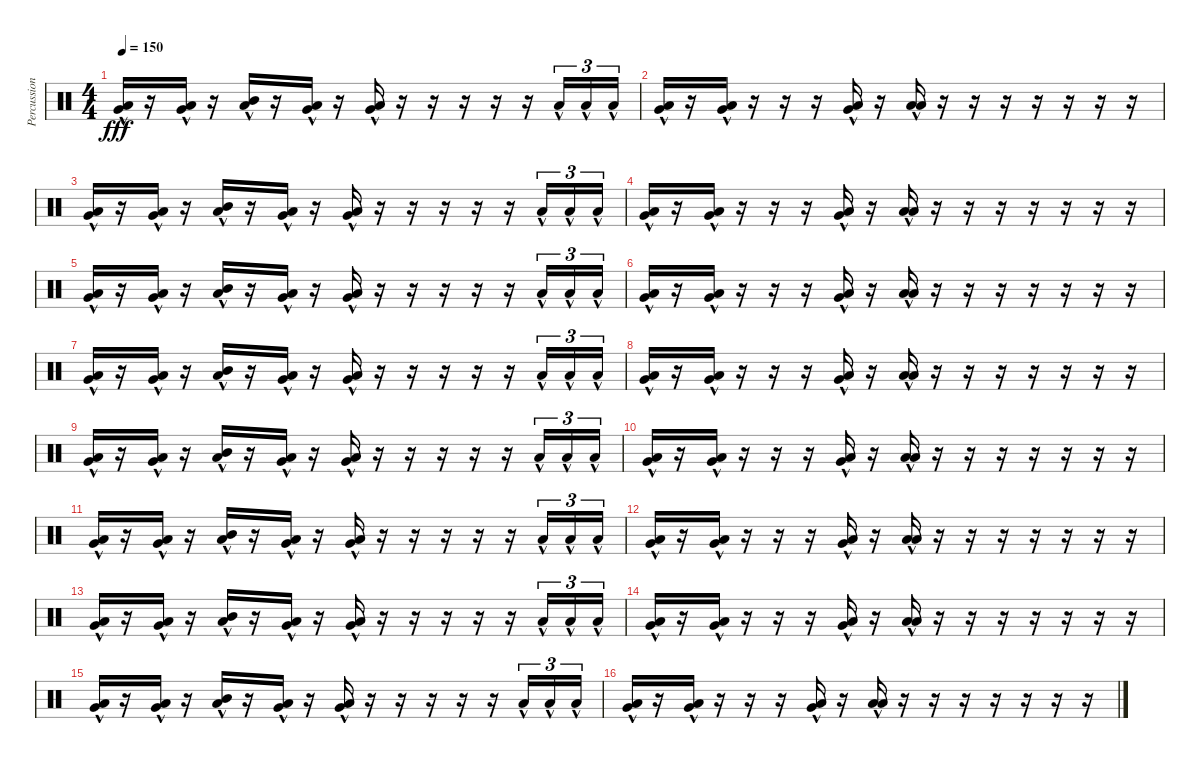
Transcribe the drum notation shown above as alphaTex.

\track ("Percussion" "Percussion") {instrument percussion}
\staff {score}
\articulation defaults
\ts (4 4)
\tempo 150
\clef neutral
\ks c
("Very Low Tom (hit)"{hac} "Low Floor Tom (hit)"{hac}).16{dy fff} r.16 ("Very Low Tom (hit)"{hac} "Low Floor Tom (hit)"{hac}).16 r.16 ("Mid Tom (hit)"{hac} "Low Floor Tom (hit)"{hac}).16 r.16 ("Very Low Tom (hit)"{hac} "Low Floor Tom (hit)"{hac}).16 r.16 ("Very Low Tom (hit)"{hac} "Low Floor Tom (hit)"{hac}).16 r.16 r.16 r.16 r.16 r.16 "Low Floor Tom (hit)"{hac}.16{tu (3 2)} "Low Floor Tom (hit)"{hac}.16{tu (3 2)} "Low Floor Tom (hit)"{hac}.16{tu (3 2)} |
("Very Low Tom (hit)"{hac} "Low Floor Tom (hit)"{hac}).16 r.16 ("Very Low Tom (hit)"{hac} "Low Floor Tom (hit)"{hac}).16 r.16 r.16 r.16 ("Very Low Tom (hit)"{hac} "Low Floor Tom (hit)"{hac}).16 r.16 ("Low Floor Tom (hit)"{hac} "Low Floor Tom (hit)"{hac}).16 r.16 r.16 r.16 r.16 r.16 r.16 r.16 |
("Very Low Tom (hit)"{hac} "Low Floor Tom (hit)"{hac}).16 r.16 ("Very Low Tom (hit)"{hac} "Low Floor Tom (hit)"{hac}).16 r.16 ("Mid Tom (hit)"{hac} "Low Floor Tom (hit)"{hac}).16 r.16 ("Very Low Tom (hit)"{hac} "Low Floor Tom (hit)"{hac}).16 r.16 ("Very Low Tom (hit)"{hac} "Low Floor Tom (hit)"{hac}).16 r.16 r.16 r.16 r.16 r.16 "Low Floor Tom (hit)"{hac}.16{tu (3 2)} "Low Floor Tom (hit)"{hac}.16{tu (3 2)} "Low Floor Tom (hit)"{hac}.16{tu (3 2)} |
("Very Low Tom (hit)"{hac} "Low Floor Tom (hit)"{hac}).16 r.16 ("Very Low Tom (hit)"{hac} "Low Floor Tom (hit)"{hac}).16 r.16 r.16 r.16 ("Very Low Tom (hit)"{hac} "Low Floor Tom (hit)"{hac}).16 r.16 ("Low Floor Tom (hit)"{hac} "Low Floor Tom (hit)"{hac}).16 r.16 r.16 r.16 r.16 r.16 r.16 r.16 |
("Very Low Tom (hit)"{hac} "Low Floor Tom (hit)"{hac}).16 r.16 ("Very Low Tom (hit)"{hac} "Low Floor Tom (hit)"{hac}).16 r.16 ("Mid Tom (hit)"{hac} "Low Floor Tom (hit)"{hac}).16 r.16 ("Very Low Tom (hit)"{hac} "Low Floor Tom (hit)"{hac}).16 r.16 ("Very Low Tom (hit)"{hac} "Low Floor Tom (hit)"{hac}).16 r.16 r.16 r.16 r.16 r.16 "Low Floor Tom (hit)"{hac}.16{tu (3 2)} "Low Floor Tom (hit)"{hac}.16{tu (3 2)} "Low Floor Tom (hit)"{hac}.16{tu (3 2)} |
("Very Low Tom (hit)"{hac} "Low Floor Tom (hit)"{hac}).16 r.16 ("Very Low Tom (hit)"{hac} "Low Floor Tom (hit)"{hac}).16 r.16 r.16 r.16 ("Very Low Tom (hit)"{hac} "Low Floor Tom (hit)"{hac}).16 r.16 ("Low Floor Tom (hit)"{hac} "Low Floor Tom (hit)"{hac}).16 r.16 r.16 r.16 r.16 r.16 r.16 r.16 |
("Very Low Tom (hit)"{hac} "Low Floor Tom (hit)"{hac}).16 r.16 ("Very Low Tom (hit)"{hac} "Low Floor Tom (hit)"{hac}).16 r.16 ("Mid Tom (hit)"{hac} "Low Floor Tom (hit)"{hac}).16 r.16 ("Very Low Tom (hit)"{hac} "Low Floor Tom (hit)"{hac}).16 r.16 ("Very Low Tom (hit)"{hac} "Low Floor Tom (hit)"{hac}).16 r.16 r.16 r.16 r.16 r.16 "Low Floor Tom (hit)"{hac}.16{tu (3 2)} "Low Floor Tom (hit)"{hac}.16{tu (3 2)} "Low Floor Tom (hit)"{hac}.16{tu (3 2)} |
("Very Low Tom (hit)"{hac} "Low Floor Tom (hit)"{hac}).16 r.16 ("Very Low Tom (hit)"{hac} "Low Floor Tom (hit)"{hac}).16 r.16 r.16 r.16 ("Very Low Tom (hit)"{hac} "Low Floor Tom (hit)"{hac}).16 r.16 ("Low Floor Tom (hit)"{hac} "Low Floor Tom (hit)"{hac}).16 r.16 r.16 r.16 r.16 r.16 r.16 r.16 |
("Very Low Tom (hit)"{hac} "Low Floor Tom (hit)"{hac}).16 r.16 ("Very Low Tom (hit)"{hac} "Low Floor Tom (hit)"{hac}).16 r.16 ("Mid Tom (hit)"{hac} "Low Floor Tom (hit)"{hac}).16 r.16 ("Very Low Tom (hit)"{hac} "Low Floor Tom (hit)"{hac}).16 r.16 ("Very Low Tom (hit)"{hac} "Low Floor Tom (hit)"{hac}).16 r.16 r.16 r.16 r.16 r.16 "Low Floor Tom (hit)"{hac}.16{tu (3 2)} "Low Floor Tom (hit)"{hac}.16{tu (3 2)} "Low Floor Tom (hit)"{hac}.16{tu (3 2)} |
("Very Low Tom (hit)"{hac} "Low Floor Tom (hit)"{hac}).16 r.16 ("Very Low Tom (hit)"{hac} "Low Floor Tom (hit)"{hac}).16 r.16 r.16 r.16 ("Very Low Tom (hit)"{hac} "Low Floor Tom (hit)"{hac}).16 r.16 ("Low Floor Tom (hit)"{hac} "Low Floor Tom (hit)"{hac}).16 r.16 r.16 r.16 r.16 r.16 r.16 r.16 |
("Very Low Tom (hit)"{hac} "Low Floor Tom (hit)"{hac}).16 r.16 ("Very Low Tom (hit)"{hac} "Low Floor Tom (hit)"{hac}).16 r.16 ("Mid Tom (hit)"{hac} "Low Floor Tom (hit)"{hac}).16 r.16 ("Very Low Tom (hit)"{hac} "Low Floor Tom (hit)"{hac}).16 r.16 ("Very Low Tom (hit)"{hac} "Low Floor Tom (hit)"{hac}).16 r.16 r.16 r.16 r.16 r.16 "Low Floor Tom (hit)"{hac}.16{tu (3 2)} "Low Floor Tom (hit)"{hac}.16{tu (3 2)} "Low Floor Tom (hit)"{hac}.16{tu (3 2)} |
("Very Low Tom (hit)"{hac} "Low Floor Tom (hit)"{hac}).16 r.16 ("Very Low Tom (hit)"{hac} "Low Floor Tom (hit)"{hac}).16 r.16 r.16 r.16 ("Very Low Tom (hit)"{hac} "Low Floor Tom (hit)"{hac}).16 r.16 ("Low Floor Tom (hit)"{hac} "Low Floor Tom (hit)"{hac}).16 r.16 r.16 r.16 r.16 r.16 r.16 r.16 |
("Very Low Tom (hit)"{hac} "Low Floor Tom (hit)"{hac}).16 r.16 ("Very Low Tom (hit)"{hac} "Low Floor Tom (hit)"{hac}).16 r.16 ("Mid Tom (hit)"{hac} "Low Floor Tom (hit)"{hac}).16 r.16 ("Very Low Tom (hit)"{hac} "Low Floor Tom (hit)"{hac}).16 r.16 ("Very Low Tom (hit)"{hac} "Low Floor Tom (hit)"{hac}).16 r.16 r.16 r.16 r.16 r.16 "Low Floor Tom (hit)"{hac}.16{tu (3 2)} "Low Floor Tom (hit)"{hac}.16{tu (3 2)} "Low Floor Tom (hit)"{hac}.16{tu (3 2)} |
("Very Low Tom (hit)"{hac} "Low Floor Tom (hit)"{hac}).16 r.16 ("Very Low Tom (hit)"{hac} "Low Floor Tom (hit)"{hac}).16 r.16 r.16 r.16 ("Very Low Tom (hit)"{hac} "Low Floor Tom (hit)"{hac}).16 r.16 ("Low Floor Tom (hit)"{hac} "Low Floor Tom (hit)"{hac}).16 r.16 r.16 r.16 r.16 r.16 r.16 r.16 |
("Very Low Tom (hit)"{hac} "Low Floor Tom (hit)"{hac}).16 r.16 ("Very Low Tom (hit)"{hac} "Low Floor Tom (hit)"{hac}).16 r.16 ("Mid Tom (hit)"{hac} "Low Floor Tom (hit)"{hac}).16 r.16 ("Very Low Tom (hit)"{hac} "Low Floor Tom (hit)"{hac}).16 r.16 ("Very Low Tom (hit)"{hac} "Low Floor Tom (hit)"{hac}).16 r.16 r.16 r.16 r.16 r.16 "Low Floor Tom (hit)"{hac}.16{tu (3 2)} "Low Floor Tom (hit)"{hac}.16{tu (3 2)} "Low Floor Tom (hit)"{hac}.16{tu (3 2)} |
("Very Low Tom (hit)"{hac} "Low Floor Tom (hit)"{hac}).16 r.16 ("Very Low Tom (hit)"{hac} "Low Floor Tom (hit)"{hac}).16 r.16 r.16 r.16 ("Very Low Tom (hit)"{hac} "Low Floor Tom (hit)"{hac}).16 r.16 ("Low Floor Tom (hit)"{hac} "Low Floor Tom (hit)"{hac}).16 r.16 r.16 r.16 r.16 r.16 r.16 r.16
